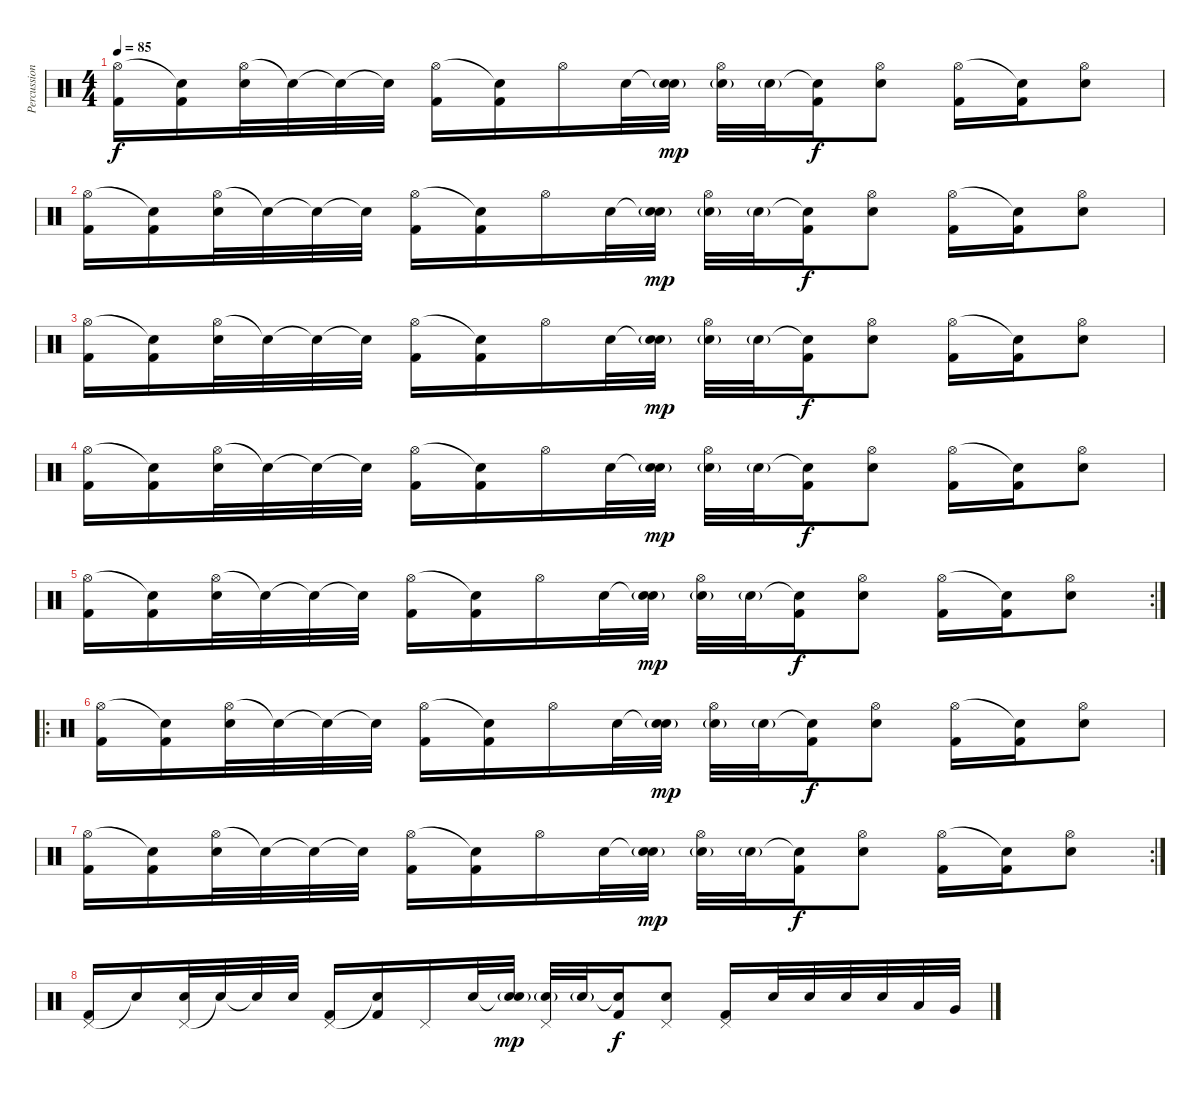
\track ("Percussion" "Percussion") {instrument percussion}
\staff {score}
\articulation defaults
\ts (4 4)
\tempo 85
\clef neutral
\ks c
("Hi-Hat (open)" "Kick (hit) 2").16{dy f} ("Snare (hit)"{t} "Kick (hit) 2").16 ("Hi-Hat (open)" "Electric Snare (hit)").32 "Snare (hit)"{t}.32 "Snare (hit)"{t}.32 "Snare (hit)"{t}.32 ("Hi-Hat (open)" "Kick (hit) 2").16 ("Snare (hit)"{t} "Kick (hit) 2").16 "Hi-Hat (open)".16 "Electric Snare (hit)".32 ("Snare (hit)"{t} "Electric Snare (hit)"{g}).32{dy mp} ("Hi-Hat (open)" "Electric Snare (hit)"{g}).32 "Electric Snare (hit)"{g}.32 ("Snare (hit)"{t} "Kick (hit) 2").16{dy f} ("Hi-Hat (open)" "Electric Snare (hit)").8 ("Hi-Hat (open)" "Kick (hit) 2").16 ("Snare (hit)"{t} "Kick (hit) 2").16 ("Hi-Hat (open)" "Electric Snare (hit)").8 |
("Hi-Hat (open)" "Kick (hit) 2").16 ("Snare (hit)"{t} "Kick (hit) 2").16 ("Hi-Hat (open)" "Electric Snare (hit)").32 "Snare (hit)"{t}.32 "Snare (hit)"{t}.32 "Snare (hit)"{t}.32 ("Hi-Hat (open)" "Kick (hit) 2").16 ("Snare (hit)"{t} "Kick (hit) 2").16 "Hi-Hat (open)".16 "Electric Snare (hit)".32 ("Snare (hit)"{t} "Electric Snare (hit)"{g}).32{dy mp} ("Hi-Hat (open)" "Electric Snare (hit)"{g}).32 "Electric Snare (hit)"{g}.32 ("Snare (hit)"{t} "Kick (hit) 2").16{dy f} ("Hi-Hat (open)" "Electric Snare (hit)").8 ("Hi-Hat (open)" "Kick (hit) 2").16 ("Snare (hit)"{t} "Kick (hit) 2").16 ("Hi-Hat (open)" "Electric Snare (hit)").8 |
("Hi-Hat (open)" "Kick (hit) 2").16 ("Snare (hit)"{t} "Kick (hit) 2").16 ("Hi-Hat (open)" "Electric Snare (hit)").32 "Snare (hit)"{t}.32 "Snare (hit)"{t}.32 "Snare (hit)"{t}.32 ("Hi-Hat (open)" "Kick (hit) 2").16 ("Snare (hit)"{t} "Kick (hit) 2").16 "Hi-Hat (open)".16 "Electric Snare (hit)".32 ("Snare (hit)"{t} "Electric Snare (hit)"{g}).32{dy mp} ("Hi-Hat (open)" "Electric Snare (hit)"{g}).32 "Electric Snare (hit)"{g}.32 ("Snare (hit)"{t} "Kick (hit) 2").16{dy f} ("Hi-Hat (open)" "Electric Snare (hit)").8 ("Hi-Hat (open)" "Kick (hit) 2").16 ("Snare (hit)"{t} "Kick (hit) 2").16 ("Hi-Hat (open)" "Electric Snare (hit)").8 |
("Hi-Hat (open)" "Kick (hit) 2").16 ("Snare (hit)"{t} "Kick (hit) 2").16 ("Hi-Hat (open)" "Electric Snare (hit)").32 "Snare (hit)"{t}.32 "Snare (hit)"{t}.32 "Snare (hit)"{t}.32 ("Hi-Hat (open)" "Kick (hit) 2").16 ("Snare (hit)"{t} "Kick (hit) 2").16 "Hi-Hat (open)".16 "Electric Snare (hit)".32 ("Snare (hit)"{t} "Electric Snare (hit)"{g}).32{dy mp} ("Hi-Hat (open)" "Electric Snare (hit)"{g}).32 "Electric Snare (hit)"{g}.32 ("Snare (hit)"{t} "Kick (hit) 2").16{dy f} ("Hi-Hat (open)" "Electric Snare (hit)").8 ("Hi-Hat (open)" "Kick (hit) 2").16 ("Snare (hit)"{t} "Kick (hit) 2").16 ("Hi-Hat (open)" "Electric Snare (hit)").8 |
\rc 2
("Hi-Hat (open)" "Kick (hit) 2").16 ("Snare (hit)"{t} "Kick (hit) 2").16 ("Hi-Hat (open)" "Electric Snare (hit)").32 "Snare (hit)"{t}.32 "Snare (hit)"{t}.32 "Snare (hit)"{t}.32 ("Hi-Hat (open)" "Kick (hit) 2").16 ("Snare (hit)"{t} "Kick (hit) 2").16 "Hi-Hat (open)".16 "Electric Snare (hit)".32 ("Snare (hit)"{t} "Electric Snare (hit)"{g}).32{dy mp} ("Hi-Hat (open)" "Electric Snare (hit)"{g}).32 "Electric Snare (hit)"{g}.32 ("Snare (hit)"{t} "Kick (hit) 2").16{dy f} ("Hi-Hat (open)" "Electric Snare (hit)").8 ("Hi-Hat (open)" "Kick (hit) 2").16 ("Snare (hit)"{t} "Kick (hit) 2").16 ("Hi-Hat (open)" "Electric Snare (hit)").8 |
\ro
("Hi-Hat (open)" "Kick (hit) 2").16 ("Snare (hit)"{t} "Kick (hit) 2").16 ("Hi-Hat (open)" "Electric Snare (hit)").32 "Snare (hit)"{t}.32 "Snare (hit)"{t}.32 "Snare (hit)"{t}.32 ("Hi-Hat (open)" "Kick (hit) 2").16 ("Snare (hit)"{t} "Kick (hit) 2").16 "Hi-Hat (open)".16 "Electric Snare (hit)".32 ("Snare (hit)"{t} "Electric Snare (hit)"{g}).32{dy mp} ("Hi-Hat (open)" "Electric Snare (hit)"{g}).32 "Electric Snare (hit)"{g}.32 ("Snare (hit)"{t} "Kick (hit) 2").16{dy f} ("Hi-Hat (open)" "Electric Snare (hit)").8 ("Hi-Hat (open)" "Kick (hit) 2").16 ("Snare (hit)"{t} "Kick (hit) 2").16 ("Hi-Hat (open)" "Electric Snare (hit)").8 |
\rc 2
("Hi-Hat (open)" "Kick (hit) 2").16 ("Snare (hit)"{t} "Kick (hit) 2").16 ("Hi-Hat (open)" "Electric Snare (hit)").32 "Snare (hit)"{t}.32 "Snare (hit)"{t}.32 "Snare (hit)"{t}.32 ("Hi-Hat (open)" "Kick (hit) 2").16 ("Snare (hit)"{t} "Kick (hit) 2").16 "Hi-Hat (open)".16 "Electric Snare (hit)".32 ("Snare (hit)"{t} "Electric Snare (hit)"{g}).32{dy mp} ("Hi-Hat (open)" "Electric Snare (hit)"{g}).32 "Electric Snare (hit)"{g}.32 ("Snare (hit)"{t} "Kick (hit) 2").16{dy f} ("Hi-Hat (open)" "Electric Snare (hit)").8 ("Hi-Hat (open)" "Kick (hit) 2").16 ("Snare (hit)"{t} "Kick (hit) 2").16 ("Hi-Hat (open)" "Electric Snare (hit)").8 |
("Pedal Hi-Hat (hit)" "Kick (hit) 2").16 "Snare (hit)"{t}.16 ("Pedal Hi-Hat (hit)" "Electric Snare (hit)").32 "Snare (hit)"{t}.32 "Snare (hit)"{t}.32 "Snare (hit)".32 ("Pedal Hi-Hat (hit)" "Kick (hit) 2").16 ("Snare (hit)"{t} "Kick (hit) 2").16 "Pedal Hi-Hat (hit)".16 "Electric Snare (hit)".32 ("Snare (hit)"{t} "Electric Snare (hit)"{g}).32{dy mp} ("Pedal Hi-Hat (hit)" "Electric Snare (hit)"{g}).32 "Electric Snare (hit)"{g}.32 ("Snare (hit)"{t} "Kick (hit) 2").16{dy f} ("Pedal Hi-Hat (hit)" "Electric Snare (hit)").8 ("Pedal Hi-Hat (hit)" "Kick (hit) 2").16 "Electric Snare (hit)".32 "Electric Snare (hit)".32 "Electric Snare (hit)".32 "Electric Snare (hit)".32 "Low Tom (hit)".32 "Very Low Tom (hit)".32
